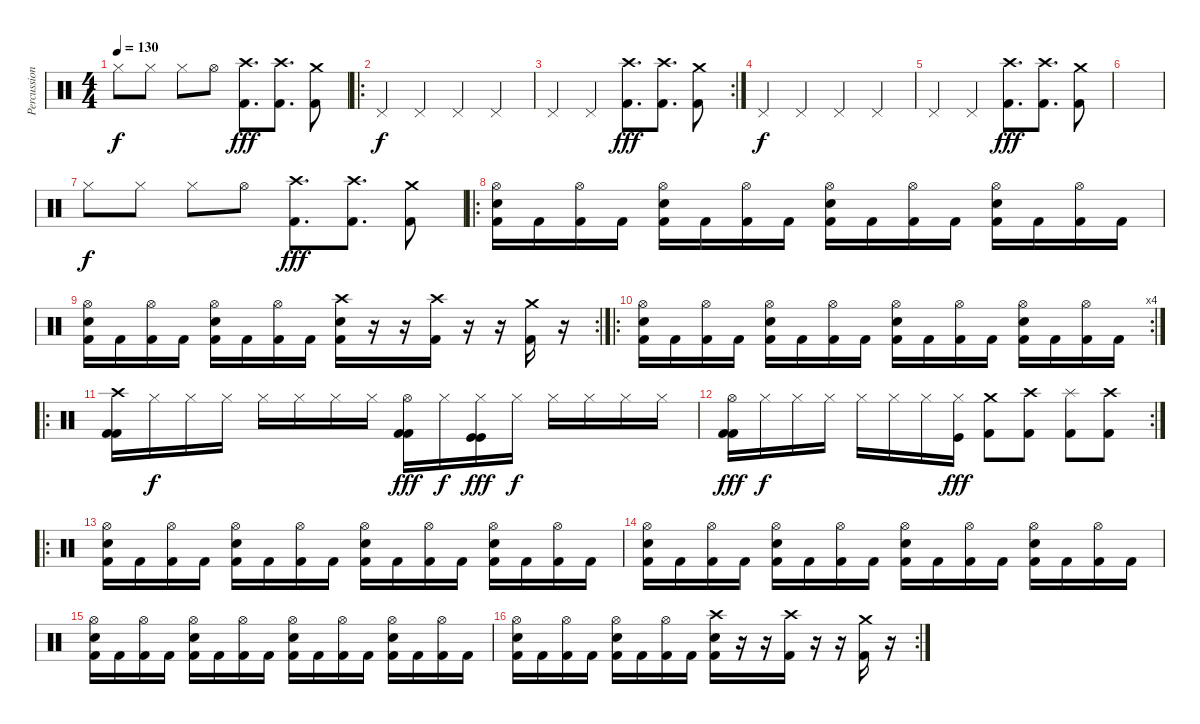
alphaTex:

\track ("Percussion" "Percussion") {instrument percussion}
\staff {score}
\articulation defaults
\ts (4 4)
\tempo 130
\clef neutral
\ks c "Hi-Hat (closed)".8{dy f} "Hi-Hat (closed)".8 "Hi-Hat (closed)".8 "Hi-Hat (open)".8
("Kick (hit) 2" "Crash high (hit)").8{d dy fff} ("Kick (hit) 2" "Crash high (hit)").8{d} ("Kick (hit) 2" "Crash medium (hit)").8 |
\ro "Pedal Hi-Hat (hit)".4{dy f} "Pedal Hi-Hat (hit)".4 "Pedal Hi-Hat (hit)".4 "Pedal Hi-Hat (hit)".4
|
\rc 2 "Pedal Hi-Hat (hit)".4 "Pedal Hi-Hat (hit)".4
("Kick (hit) 2" "Crash high (hit)").8{d dy fff} ("Kick (hit) 2" "Crash high (hit)").8{d} ("Kick (hit) 2" "Crash medium (hit)").8 |
"Pedal Hi-Hat (hit)".4{dy f} "Pedal Hi-Hat (hit)".4 "Pedal Hi-Hat (hit)".4 "Pedal Hi-Hat (hit)".4 |
"Pedal Hi-Hat (hit)".4 "Pedal Hi-Hat (hit)".4 ("Kick (hit) 2" "Crash high (hit)").8{d dy fff} ("Kick (hit) 2" "Crash high (hit)").8{d} ("Kick (hit) 2" "Crash medium (hit)").8 |
|
"Hi-Hat (closed)".8{dy f} "Hi-Hat (closed)".8 "Hi-Hat (closed)".8 "Hi-Hat (open)".8 ("Kick (hit) 2" "Crash high (hit)").8{d dy fff} ("Kick (hit) 2" "Crash high (hit)").8{d} ("Kick (hit) 2" "Crash medium (hit)").8 |
\ro
("Kick (hit) 2" "Snare (hit) 2" "Hi-Hat (open)").16 "Kick (hit) 2".16 ("Kick (hit) 2" "Hi-Hat (open)").16 "Kick (hit) 2".16 ("Kick (hit) 2" "Snare (hit) 2" "Hi-Hat (open)").16 "Kick (hit) 2".16 ("Kick (hit) 2" "Hi-Hat (open)").16 "Kick (hit) 2".16 ("Kick (hit) 2" "Snare (hit) 2" "Hi-Hat (open)").16 "Kick (hit) 2".16 ("Kick (hit) 2" "Hi-Hat (open)").16 "Kick (hit) 2".16 ("Kick (hit) 2" "Snare (hit) 2" "Hi-Hat (open)").16 "Kick (hit) 2".16 ("Kick (hit) 2" "Hi-Hat (open)").16 "Kick (hit) 2".16 |
\rc 2
("Kick (hit) 2" "Snare (hit) 2" "Hi-Hat (open)").16 "Kick (hit) 2".16 ("Kick (hit) 2" "Hi-Hat (open)").16 "Kick (hit) 2".16 ("Kick (hit) 2" "Snare (hit) 2" "Hi-Hat (open)").16 "Kick (hit) 2".16 ("Kick (hit) 2" "Hi-Hat (open)").16 "Kick (hit) 2".16 ("Kick (hit) 2" "Snare (hit) 2" "Crash high (hit)").16 r.16 r.16 ("Kick (hit) 2" "Crash high (hit)").16 r.16 r.16 ("Kick (hit) 2" "Crash medium (hit)").16 r.16 |
\ro
\rc 4
("Kick (hit) 2" "Snare (hit) 2" "Hi-Hat (open)").16 "Kick (hit) 2".16 ("Kick (hit) 2" "Hi-Hat (open)").16 "Kick (hit) 2".16 ("Kick (hit) 2" "Snare (hit) 2" "Hi-Hat (open)").16 "Kick (hit) 2".16 ("Kick (hit) 2" "Hi-Hat (open)").16 "Kick (hit) 2".16 ("Kick (hit) 2" "Snare (hit) 2" "Hi-Hat (open)").16 "Kick (hit) 2".16 ("Kick (hit) 2" "Hi-Hat (open)").16 "Kick (hit) 2".16 ("Kick (hit) 2" "Snare (hit) 2" "Hi-Hat (open)").16 "Kick (hit) 2".16 ("Kick (hit) 2" "Hi-Hat (open)").16 "Kick (hit) 2".16 |
\ro
("Kick (hit) 2" "Kick (hit) 2" "Crash high (hit)").16 "Hi-Hat (closed)".16{dy f} "Hi-Hat (closed)".16 "Hi-Hat (closed)".16 "Hi-Hat (closed)".16 "Hi-Hat (closed)".16 "Hi-Hat (closed)".16 "Hi-Hat (closed)".16 ("Kick (hit) 2" "Kick (hit) 2" "Hi-Hat (open)").16{dy fff} "Hi-Hat (closed)".16{dy f} ("Kick (hit)" "Kick (hit)" "Hi-Hat (closed)").16{dy fff} "Hi-Hat (closed)".16{dy f} "Hi-Hat (closed)".16 "Hi-Hat (closed)".16 "Hi-Hat (closed)".16 "Hi-Hat (closed)".16 |
\rc 2
("Kick (hit) 2" "Kick (hit) 2" "Hi-Hat (open)").16{dy fff} "Hi-Hat (closed)".16{dy f} "Hi-Hat (closed)".16 "Hi-Hat (closed)".16 "Hi-Hat (closed)".16 "Hi-Hat (closed)".16 "Hi-Hat (closed)".16 ("Kick (hit)" "Hi-Hat (closed)").16{dy fff} ("Kick (hit) 2" "Crash medium (hit)").8 ("Kick (hit) 2" "Crash high (hit)").8 ("Kick (hit) 2" "Splash (hit)").8 ("Kick (hit) 2" "Crash high (hit)").8 |
\ro
("Kick (hit) 2" "Snare (hit) 2" "Hi-Hat (open)").16 "Kick (hit) 2".16 ("Kick (hit) 2" "Hi-Hat (open)").16 "Kick (hit) 2".16 ("Kick (hit) 2" "Snare (hit) 2" "Hi-Hat (open)").16 "Kick (hit) 2".16 ("Kick (hit) 2" "Hi-Hat (open)").16 "Kick (hit) 2".16 ("Kick (hit) 2" "Snare (hit) 2" "Hi-Hat (open)").16 "Kick (hit) 2".16 ("Kick (hit) 2" "Hi-Hat (open)").16 "Kick (hit) 2".16 ("Kick (hit) 2" "Snare (hit) 2" "Hi-Hat (open)").16 "Kick (hit) 2".16 ("Kick (hit) 2" "Hi-Hat (open)").16 "Kick (hit) 2".16 |
("Kick (hit) 2" "Snare (hit) 2" "Hi-Hat (open)").16 "Kick (hit) 2".16 ("Kick (hit) 2" "Hi-Hat (open)").16 "Kick (hit) 2".16 ("Kick (hit) 2" "Snare (hit) 2" "Hi-Hat (open)").16 "Kick (hit) 2".16 ("Kick (hit) 2" "Hi-Hat (open)").16 "Kick (hit) 2".16 ("Kick (hit) 2" "Snare (hit) 2" "Hi-Hat (open)").16 "Kick (hit) 2".16 ("Kick (hit) 2" "Hi-Hat (open)").16 "Kick (hit) 2".16 ("Kick (hit) 2" "Snare (hit) 2" "Hi-Hat (open)").16 "Kick (hit) 2".16 ("Kick (hit) 2" "Hi-Hat (open)").16 "Kick (hit) 2".16 |
("Kick (hit) 2" "Snare (hit) 2" "Hi-Hat (open)").16 "Kick (hit) 2".16 ("Kick (hit) 2" "Hi-Hat (open)").16 "Kick (hit) 2".16 ("Kick (hit) 2" "Snare (hit) 2" "Hi-Hat (open)").16 "Kick (hit) 2".16 ("Kick (hit) 2" "Hi-Hat (open)").16 "Kick (hit) 2".16 ("Kick (hit) 2" "Snare (hit) 2" "Hi-Hat (open)").16 "Kick (hit) 2".16 ("Kick (hit) 2" "Hi-Hat (open)").16 "Kick (hit) 2".16 ("Kick (hit) 2" "Snare (hit) 2" "Hi-Hat (open)").16 "Kick (hit) 2".16 ("Kick (hit) 2" "Hi-Hat (open)").16 "Kick (hit) 2".16 |
\rc 2
("Kick (hit) 2" "Snare (hit) 2" "Hi-Hat (open)").16 "Kick (hit) 2".16 ("Kick (hit) 2" "Hi-Hat (open)").16 "Kick (hit) 2".16 ("Kick (hit) 2" "Snare (hit) 2" "Hi-Hat (open)").16 "Kick (hit) 2".16 ("Kick (hit) 2" "Hi-Hat (open)").16 "Kick (hit) 2".16 ("Kick (hit) 2" "Snare (hit) 2" "Crash high (hit)").16 r.16 r.16 ("Kick (hit) 2" "Crash high (hit)").16 r.16 r.16 ("Kick (hit) 2" "Crash medium (hit)").16 r.16
